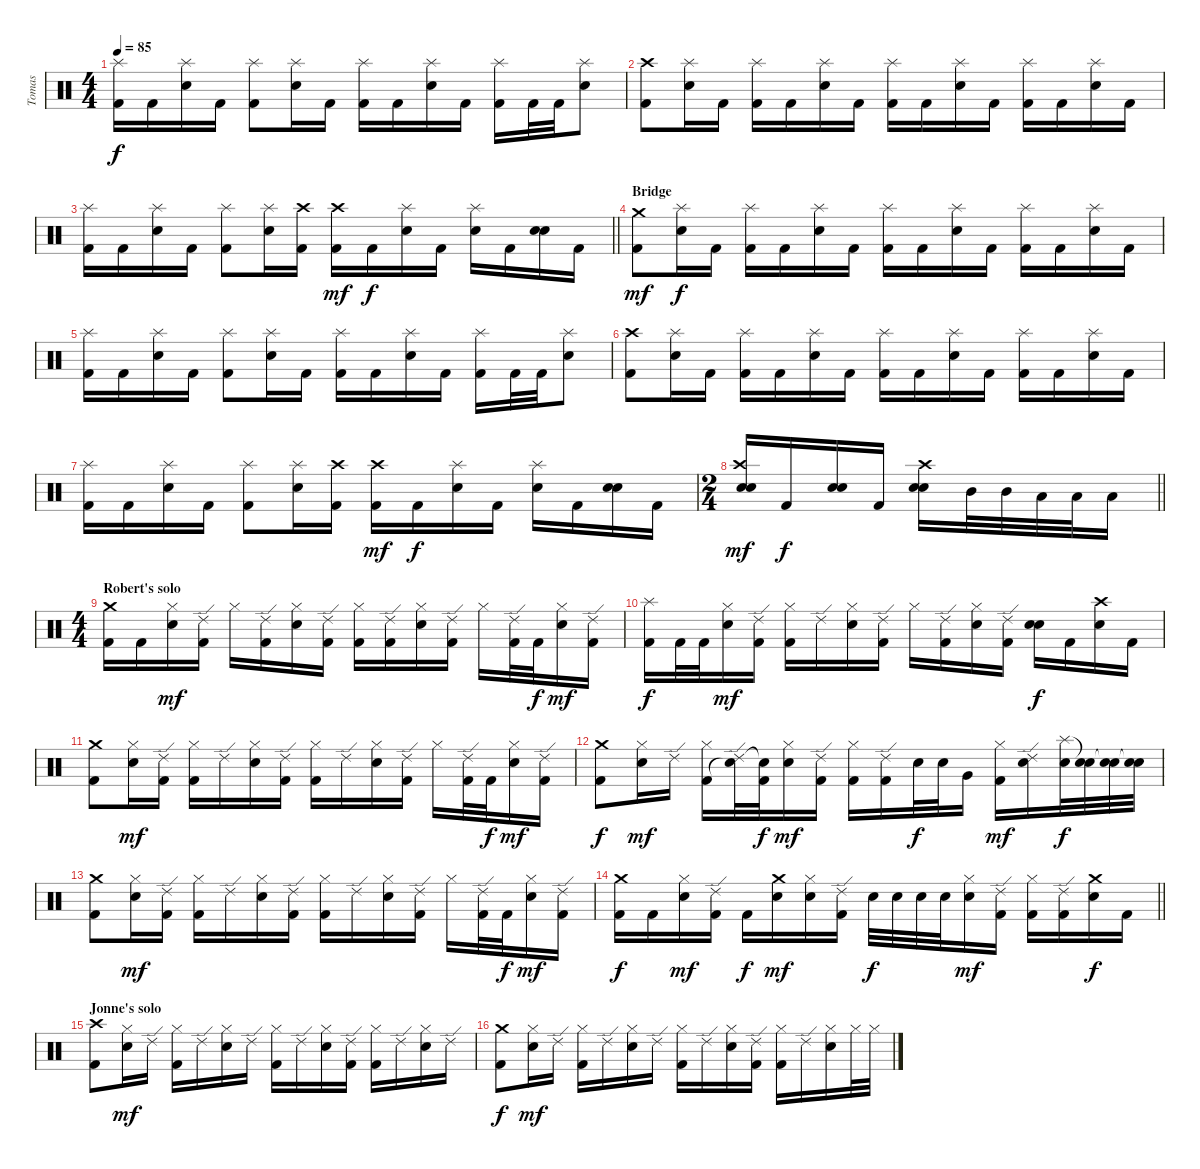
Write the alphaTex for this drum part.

\track ("Tomas" "Tomas") {instrument percussion}
\staff {score}
\articulation defaults
\ts (4 4)
\tempo 85
\clef neutral
\ks c
("Kick (hit) 2" "Splash (hit)").16{dy f} "Kick (hit) 2".16 ("Electric Snare (hit)" "Splash (hit)").16 "Kick (hit) 2".16 ("Kick (hit) 2" "Splash (hit)").8 ("Electric Snare (hit)" "Splash (hit)").16 "Kick (hit) 2".16 ("Kick (hit) 2" "Splash (hit)").16 "Kick (hit) 2".16 ("Electric Snare (hit)" "Splash (hit)").16 "Kick (hit) 2".16 ("Kick (hit) 2" "Splash (hit)").16 "Kick (hit) 2".32 "Kick (hit) 2".32 ("Electric Snare (hit)" "Splash (hit)").8 |
("Kick (hit) 2" "Crash high (hit)").8 ("Electric Snare (hit)" "Splash (hit)").16 "Kick (hit) 2".16 ("Kick (hit) 2" "Splash (hit)").16 "Kick (hit) 2".16 ("Electric Snare (hit)" "Splash (hit)").16 "Kick (hit) 2".16 ("Kick (hit) 2" "Splash (hit)").16 "Kick (hit) 2".16 ("Electric Snare (hit)" "Splash (hit)").16 "Kick (hit) 2".16 ("Kick (hit) 2" "Splash (hit)").16 "Kick (hit) 2".16 ("Electric Snare (hit)" "Splash (hit)").16 "Kick (hit) 2".16 |
\barLineRight lightlight
("Kick (hit) 2" "Splash (hit)").16 "Kick (hit) 2".16 ("Electric Snare (hit)" "Splash (hit)").16 "Kick (hit) 2".16 ("Kick (hit) 2" "Splash (hit)").8 ("Electric Snare (hit)" "Splash (hit)").16 ("Kick (hit) 2" "Crash high (hit)").16 ("Kick (hit) 2" "Crash high (hit)").16{dy mf} "Kick (hit) 2".16{dy f} ("Electric Snare (hit)" "Splash (hit)").16 "Kick (hit) 2".16 ("Electric Snare (hit)" "Splash (hit)").16 "Kick (hit) 2".16 ("Electric Snare (hit)" "Snare (hit) 2").16 "Kick (hit) 2".16 |
\section ("" "Bridge")
("Kick (hit) 2" "Crash medium (hit)").8{dy mf} ("Electric Snare (hit)" "Splash (hit)").16{dy f} "Kick (hit) 2".16 ("Kick (hit) 2" "Splash (hit)").16 "Kick (hit) 2".16 ("Electric Snare (hit)" "Splash (hit)").16 "Kick (hit) 2".16 ("Kick (hit) 2" "Splash (hit)").16 "Kick (hit) 2".16 ("Electric Snare (hit)" "Splash (hit)").16 "Kick (hit) 2".16 ("Kick (hit) 2" "Splash (hit)").16 "Kick (hit) 2".16 ("Electric Snare (hit)" "Splash (hit)").16 "Kick (hit) 2".16 |
("Kick (hit) 2" "Splash (hit)").16 "Kick (hit) 2".16 ("Electric Snare (hit)" "Splash (hit)").16 "Kick (hit) 2".16 ("Kick (hit) 2" "Splash (hit)").8 ("Electric Snare (hit)" "Splash (hit)").16 "Kick (hit) 2".16 ("Kick (hit) 2" "Splash (hit)").16 "Kick (hit) 2".16 ("Electric Snare (hit)" "Splash (hit)").16 "Kick (hit) 2".16 ("Kick (hit) 2" "Splash (hit)").16 "Kick (hit) 2".32 "Kick (hit) 2".32 ("Electric Snare (hit)" "Splash (hit)").8 |
("Kick (hit) 2" "Crash high (hit)").8 ("Electric Snare (hit)" "Splash (hit)").16 "Kick (hit) 2".16 ("Kick (hit) 2" "Splash (hit)").16 "Kick (hit) 2".16 ("Electric Snare (hit)" "Splash (hit)").16 "Kick (hit) 2".16 ("Kick (hit) 2" "Splash (hit)").16 "Kick (hit) 2".16 ("Electric Snare (hit)" "Splash (hit)").16 "Kick (hit) 2".16 ("Kick (hit) 2" "Splash (hit)").16 "Kick (hit) 2".16 ("Electric Snare (hit)" "Splash (hit)").16 "Kick (hit) 2".16 |
("Kick (hit) 2" "Splash (hit)").16 "Kick (hit) 2".16 ("Electric Snare (hit)" "Splash (hit)").16 "Kick (hit) 2".16 ("Kick (hit) 2" "Splash (hit)").8 ("Electric Snare (hit)" "Splash (hit)").16 ("Kick (hit) 2" "Crash high (hit)").16 ("Kick (hit) 2" "Crash high (hit)").16{dy mf} "Kick (hit) 2".16{dy f} ("Electric Snare (hit)" "Splash (hit)").16 "Kick (hit) 2".16 ("Electric Snare (hit)" "Splash (hit)").16 "Kick (hit) 2".16 ("Electric Snare (hit)" "Snare (hit) 2").16 "Kick (hit) 2".16 |
\ts (2 4)
\barLineRight lightlight
("Electric Snare (hit)" "Snare (hit) 2" "Crash high (hit)").16{dy mf} "Kick (hit) 2".16{dy f} ("Electric Snare (hit)" "Snare (hit) 2").16 "Kick (hit) 2".16 ("Electric Snare (hit)" "Snare (hit) 2" "Crash high (hit)").16 "Mid Tom (hit)".32 "Mid Tom (hit)".32 "Low Tom (hit)".32 "Low Tom (hit)".32 "Low Floor Tom (hit)".16 |
\ts (4 4)
\section ("" "Robert's solo")
("Kick (hit) 2" "Crash medium (hit)").16 "Kick (hit) 2".16 ("Electric Snare (hit)" "Hi-Hat (closed)").16{dy mf} ("Kick (hit) 2" "Ride (edge) 2").16 "Hi-Hat (closed)".16 ("Kick (hit) 2" "Ride (edge) 2").16 ("Electric Snare (hit)" "Hi-Hat (closed)").16 ("Kick (hit) 2" "Ride (edge) 2").16 ("Kick (hit) 2" "Hi-Hat (closed)").16 ("Kick (hit) 2" "Ride (edge) 2").16 ("Electric Snare (hit)" "Hi-Hat (closed)").16 ("Kick (hit) 2" "Ride (edge) 2").16 "Hi-Hat (closed)".16 ("Kick (hit) 2" "Ride (edge) 2").32 "Kick (hit) 2".32{dy f} ("Electric Snare (hit)" "Hi-Hat (closed)").16{dy mf} ("Kick (hit) 2" "Ride (edge) 2").16 |
("Kick (hit) 2" "Splash (hit)").16{dy f} "Kick (hit) 2".32 "Kick (hit) 2".32 ("Electric Snare (hit)" "Hi-Hat (closed)").16{dy mf} ("Kick (hit) 2" "Ride (edge) 2").16 ("Kick (hit) 2" "Hi-Hat (closed)").16 "Ride (edge) 2".16 ("Electric Snare (hit)" "Hi-Hat (closed)").16 ("Kick (hit) 2" "Ride (edge) 2").16 "Hi-Hat (closed)".16 ("Kick (hit) 2" "Ride (edge) 2").16 ("Electric Snare (hit)" "Hi-Hat (closed)").16 ("Kick (hit) 2" "Ride (edge) 2").16 ("Electric Snare (hit)" "Snare (hit) 2").16{dy f} "Kick (hit) 2".16 ("Electric Snare (hit)" "Crash high (hit)").16 "Kick (hit) 2".16 |
("Kick (hit) 2" "Crash medium (hit)").8 ("Electric Snare (hit)" "Hi-Hat (closed)").16{dy mf} ("Kick (hit) 2" "Ride (edge) 2").16 ("Kick (hit) 2" "Hi-Hat (closed)").16 "Ride (edge) 2".16 ("Electric Snare (hit)" "Hi-Hat (closed)").16 ("Kick (hit) 2" "Ride (edge) 2").16 ("Kick (hit) 2" "Hi-Hat (closed)").16 "Ride (edge) 2".16 ("Electric Snare (hit)" "Hi-Hat (closed)").16 ("Kick (hit) 2" "Ride (edge) 2").16 "Hi-Hat (closed)".16 ("Kick (hit) 2" "Ride (edge) 2").32 "Kick (hit) 2".32{dy f} ("Electric Snare (hit)" "Hi-Hat (closed)").16{dy mf} ("Kick (hit) 2" "Ride (edge) 2").16 |
("Kick (hit) 2" "Crash medium (hit)").8{dy f} ("Electric Snare (hit)" "Hi-Hat (closed)").16{dy mf} "Ride (edge) 2".16 ("Kick (hit) 2" "Hi-Hat (closed)").16 ("Snare (hit)"{t} "Ride (edge) 2").32 ("Kick (hit) 2" "Snare (hit)"{t}).32{dy f} ("Electric Snare (hit)" "Hi-Hat (closed)").16{dy mf} ("Kick (hit) 2" "Ride (edge) 2").16 ("Kick (hit) 2" "Hi-Hat (closed)").16 ("Kick (hit) 2" "Ride (edge) 2").16 "Electric Snare (hit)".32{dy f} "Electric Snare (hit)".32 "Very Low Tom (hit)".16 ("Kick (hit) 2" "Hi-Hat (closed)").16{dy mf} ("Electric Snare (hit)" "Ride (edge) 2").16 ("Electric Snare (hit)" "Splash (hit)").32{dy f} ("Electric Snare (hit)" "Snare (hit)"{t}).32 ("Electric Snare (hit)" "Snare (hit)"{t}).32 ("Electric Snare (hit)" "Snare (hit)"{t}).32 |
("Kick (hit) 2" "Crash medium (hit)").8 ("Electric Snare (hit)" "Hi-Hat (closed)").16{dy mf} ("Kick (hit) 2" "Ride (edge) 2").16 ("Kick (hit) 2" "Hi-Hat (closed)").16 "Ride (edge) 2".16 ("Electric Snare (hit)" "Hi-Hat (closed)").16 ("Kick (hit) 2" "Ride (edge) 2").16 ("Kick (hit) 2" "Hi-Hat (closed)").16 "Ride (edge) 2".16 ("Electric Snare (hit)" "Hi-Hat (closed)").16 ("Kick (hit) 2" "Ride (edge) 2").16 "Hi-Hat (closed)".16 ("Kick (hit) 2" "Ride (edge) 2").32 "Kick (hit) 2".32{dy f} ("Electric Snare (hit)" "Hi-Hat (closed)").16{dy mf} ("Kick (hit) 2" "Ride (edge) 2").16 |
\barLineRight lightlight
("Kick (hit) 2" "Crash medium (hit)").16{dy f} "Kick (hit) 2".16 ("Electric Snare (hit)" "Hi-Hat (closed)").16{dy mf} ("Kick (hit) 2" "Ride (edge) 2").16 "Kick (hit) 2".16{dy f} ("Electric Snare (hit)" "Crash medium (hit)").16{dy mf} ("Electric Snare (hit)" "Hi-Hat (closed)").16 ("Kick (hit) 2" "Ride (edge) 2").16 "Electric Snare (hit)".32{dy f} "Electric Snare (hit)".32 "Electric Snare (hit)".32 "Electric Snare (hit)".32 ("Electric Snare (hit)" "Hi-Hat (closed)").16{dy mf} ("Kick (hit) 2" "Ride (edge) 2").16 ("Kick (hit) 2" "Hi-Hat (closed)").16 ("Kick (hit) 2" "Ride (edge) 2").16 ("Electric Snare (hit)" "Crash medium (hit)").16{dy f} "Kick (hit) 2".16 |
\section ("" "Jonne's solo")
("Kick (hit) 2" "Crash high (hit)").8 ("Electric Snare (hit)" "Hi-Hat (closed)").16{dy mf} "Ride (edge) 2".16 ("Kick (hit) 2" "Hi-Hat (closed)").16 "Ride (edge) 2".16 ("Electric Snare (hit)" "Hi-Hat (closed)").16 "Ride (edge) 2".16 ("Kick (hit) 2" "Hi-Hat (closed)").16 "Ride (edge) 2".16 ("Electric Snare (hit)" "Hi-Hat (closed)").16 ("Kick (hit) 2" "Ride (edge) 2").16 ("Kick (hit) 2" "Hi-Hat (closed)").16 "Ride (edge) 2".16 ("Electric Snare (hit)" "Hi-Hat (closed)").16 "Ride (edge) 2".16 |
("Kick (hit) 2" "Crash medium (hit)").8{dy f} ("Electric Snare (hit)" "Hi-Hat (closed)").16{dy mf} "Ride (edge) 2".16 ("Kick (hit) 2" "Hi-Hat (closed)").16 "Ride (edge) 2".16 ("Electric Snare (hit)" "Hi-Hat (closed)").16 "Ride (edge) 2".16 ("Kick (hit) 2" "Hi-Hat (closed)").16 "Ride (edge) 2".16 ("Electric Snare (hit)" "Hi-Hat (closed)").16 ("Kick (hit) 2" "Ride (edge) 2").16 ("Kick (hit) 2" "Hi-Hat (closed)").16 "Ride (edge) 2".16 ("Electric Snare (hit)" "Hi-Hat (closed)").16 "Hi-Hat (closed)".32 "Hi-Hat (closed)".32
